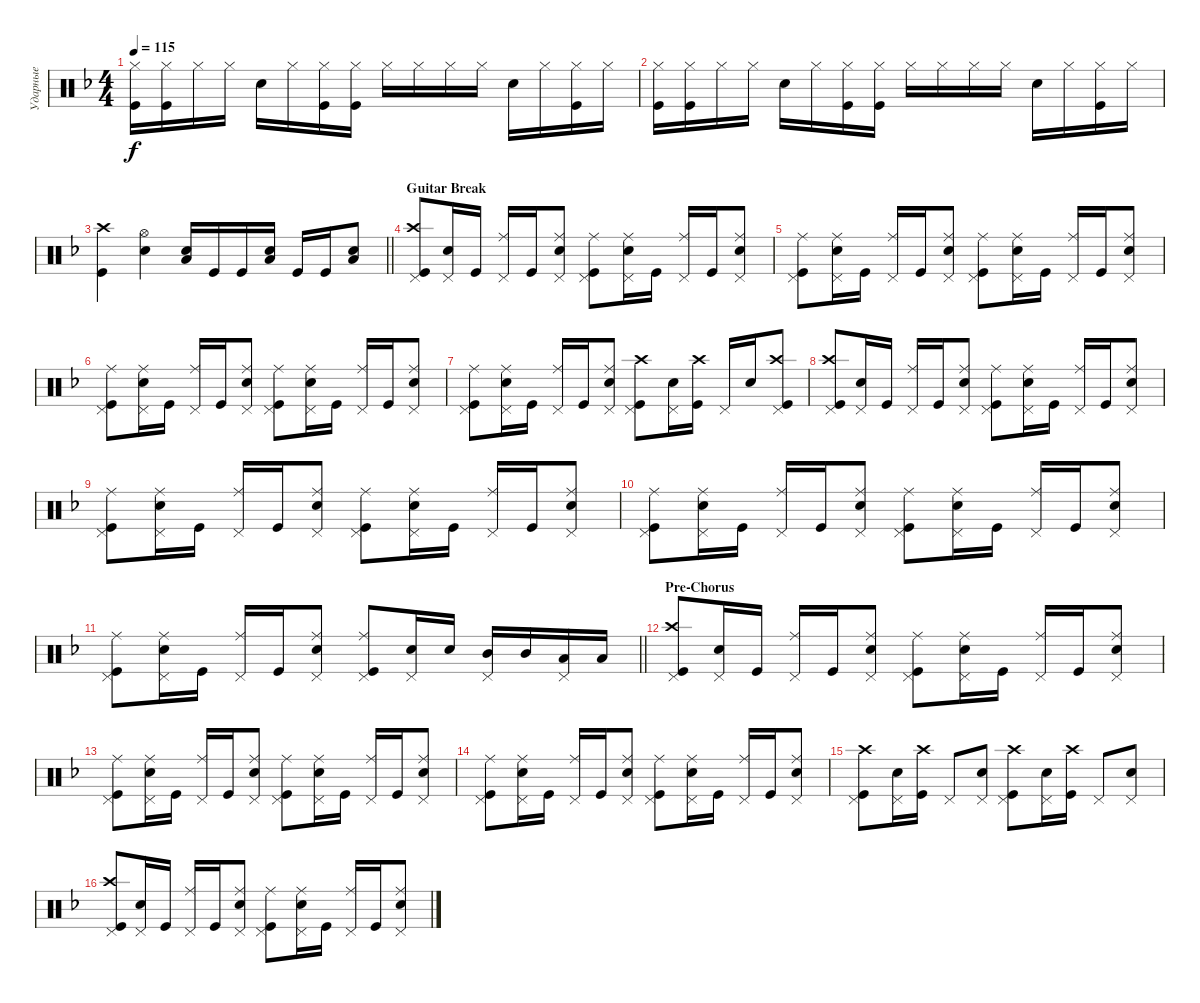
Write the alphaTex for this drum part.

\track ("Ударные" "Ударные") {instrument percussion}
\staff {score}
\articulation defaults
\ts (4 4)
\tempo 115
\clef neutral
\ks dminor
("Kick (hit)" "Hi-Hat (closed)").16{dy f} ("Kick (hit)" "Hi-Hat (closed)").16 "Hi-Hat (closed)".16 "Hi-Hat (closed)".16 "Snare (hit) 2".16 "Hi-Hat (closed)".16 ("Hi-Hat (closed)" "Kick (hit)").16 ("Hi-Hat (closed)" "Kick (hit)").16 "Hi-Hat (closed)".16 "Hi-Hat (closed)".16 "Hi-Hat (closed)".16 "Hi-Hat (closed)".16 "Snare (hit) 2".16 "Hi-Hat (closed)".16 ("Hi-Hat (closed)" "Kick (hit)").16 "Hi-Hat (closed)".16 |
("Kick (hit)" "Hi-Hat (closed)").16 ("Kick (hit)" "Hi-Hat (closed)").16 "Hi-Hat (closed)".16 "Hi-Hat (closed)".16 "Snare (hit) 2".16 "Hi-Hat (closed)".16 ("Hi-Hat (closed)" "Kick (hit)").16 ("Hi-Hat (closed)" "Kick (hit)").16 "Hi-Hat (closed)".16 "Hi-Hat (closed)".16 "Hi-Hat (closed)".16 "Hi-Hat (closed)".16 "Snare (hit) 2".16 "Hi-Hat (closed)".16 ("Hi-Hat (closed)" "Kick (hit)").16 "Hi-Hat (closed)".16 |
\barLineRight lightlight
("Kick (hit)" "Crash high (hit)").4 ("Snare (hit) 2" "Hi-Hat (open)").4 ("Snare (hit) 2" "Low Tom (hit)").16{bd 240} "Kick (hit)".16 "Kick (hit)".16 ("Snare (hit) 2" "Low Tom (hit)").16{bd 240} "Kick (hit)".16 "Kick (hit)".16 ("Low Tom (hit)" "Snare (hit) 2").8{bd 240} |
\section ("" "Guitar Break")
("Kick (hit)" "Pedal Hi-Hat (hit)" "Crash high (hit)").8 ("Snare (hit) 2" "Pedal Hi-Hat (hit)").16 "Kick (hit)".16 ("Ride (middle)" "Pedal Hi-Hat (hit)").16 "Kick (hit)".16 ("Snare (hit) 2" "Ride (middle)" "Pedal Hi-Hat (hit)").8 ("Kick (hit)" "Pedal Hi-Hat (hit)" "Ride (middle)").8 ("Snare (hit) 2" "Ride (middle)" "Pedal Hi-Hat (hit)").16 "Kick (hit)".16 ("Ride (middle)" "Pedal Hi-Hat (hit)").16 "Kick (hit)".16 ("Snare (hit) 2" "Ride (middle)" "Pedal Hi-Hat (hit)").8 |
("Kick (hit)" "Pedal Hi-Hat (hit)" "Ride (middle)").8 ("Snare (hit) 2" "Ride (middle)" "Pedal Hi-Hat (hit)").16 "Kick (hit)".16 ("Ride (middle)" "Pedal Hi-Hat (hit)").16 "Kick (hit)".16 ("Snare (hit) 2" "Ride (middle)" "Pedal Hi-Hat (hit)").8 ("Kick (hit)" "Pedal Hi-Hat (hit)" "Ride (middle)").8 ("Snare (hit) 2" "Ride (middle)" "Pedal Hi-Hat (hit)").16 "Kick (hit)".16 ("Ride (middle)" "Pedal Hi-Hat (hit)").16 "Kick (hit)".16 ("Snare (hit) 2" "Ride (middle)" "Pedal Hi-Hat (hit)").8 |
("Kick (hit)" "Pedal Hi-Hat (hit)" "Ride (middle)").8 ("Snare (hit) 2" "Ride (middle)" "Pedal Hi-Hat (hit)").16 "Kick (hit)".16 ("Ride (middle)" "Pedal Hi-Hat (hit)").16 "Kick (hit)".16 ("Snare (hit) 2" "Ride (middle)" "Pedal Hi-Hat (hit)").8 ("Kick (hit)" "Pedal Hi-Hat (hit)" "Ride (middle)").8 ("Snare (hit) 2" "Ride (middle)" "Pedal Hi-Hat (hit)").16 "Kick (hit)".16 ("Ride (middle)" "Pedal Hi-Hat (hit)").16 "Kick (hit)".16 ("Snare (hit) 2" "Ride (middle)" "Pedal Hi-Hat (hit)").8 |
("Kick (hit)" "Pedal Hi-Hat (hit)" "Ride (middle)").8 ("Snare (hit) 2" "Ride (middle)" "Pedal Hi-Hat (hit)").16 "Kick (hit)".16 ("Ride (middle)" "Pedal Hi-Hat (hit)").16 "Kick (hit)".16 ("Snare (hit) 2" "Ride (middle)" "Pedal Hi-Hat (hit)").8 ("Kick (hit)" "Pedal Hi-Hat (hit)" "Crash high (hit)").8 ("Snare (hit) 2" "Pedal Hi-Hat (hit)").16 ("Kick (hit)" "Crash high (hit)").16 "Pedal Hi-Hat (hit)".16 "Snare (hit) 2".16 ("Crash high (hit)" "Pedal Hi-Hat (hit)" "Kick (hit)").8 |
("Kick (hit)" "Pedal Hi-Hat (hit)" "Crash high (hit)").8 ("Snare (hit) 2" "Pedal Hi-Hat (hit)").16 "Kick (hit)".16 ("Ride (middle)" "Pedal Hi-Hat (hit)").16 "Kick (hit)".16 ("Snare (hit) 2" "Ride (middle)" "Pedal Hi-Hat (hit)").8 ("Kick (hit)" "Pedal Hi-Hat (hit)" "Ride (middle)").8 ("Snare (hit) 2" "Ride (middle)" "Pedal Hi-Hat (hit)").16 "Kick (hit)".16 ("Ride (middle)" "Pedal Hi-Hat (hit)").16 "Kick (hit)".16 ("Snare (hit) 2" "Ride (middle)" "Pedal Hi-Hat (hit)").8 |
("Kick (hit)" "Pedal Hi-Hat (hit)" "Ride (middle)").8 ("Snare (hit) 2" "Ride (middle)" "Pedal Hi-Hat (hit)").16 "Kick (hit)".16 ("Ride (middle)" "Pedal Hi-Hat (hit)").16 "Kick (hit)".16 ("Snare (hit) 2" "Ride (middle)" "Pedal Hi-Hat (hit)").8 ("Kick (hit)" "Pedal Hi-Hat (hit)" "Ride (middle)").8 ("Snare (hit) 2" "Ride (middle)" "Pedal Hi-Hat (hit)").16 "Kick (hit)".16 ("Ride (middle)" "Pedal Hi-Hat (hit)").16 "Kick (hit)".16 ("Snare (hit) 2" "Ride (middle)" "Pedal Hi-Hat (hit)").8 |
("Kick (hit)" "Pedal Hi-Hat (hit)" "Ride (middle)").8 ("Snare (hit) 2" "Ride (middle)" "Pedal Hi-Hat (hit)").16 "Kick (hit)".16 ("Ride (middle)" "Pedal Hi-Hat (hit)").16 "Kick (hit)".16 ("Snare (hit) 2" "Ride (middle)" "Pedal Hi-Hat (hit)").8 ("Kick (hit)" "Pedal Hi-Hat (hit)" "Ride (middle)").8 ("Snare (hit) 2" "Ride (middle)" "Pedal Hi-Hat (hit)").16 "Kick (hit)".16 ("Ride (middle)" "Pedal Hi-Hat (hit)").16 "Kick (hit)".16 ("Snare (hit) 2" "Ride (middle)" "Pedal Hi-Hat (hit)").8 |
\barLineRight lightlight
("Kick (hit)" "Pedal Hi-Hat (hit)" "Ride (middle)").8 ("Snare (hit) 2" "Ride (middle)" "Pedal Hi-Hat (hit)").16 "Kick (hit)".16 ("Ride (middle)" "Pedal Hi-Hat (hit)").16 "Kick (hit)".16 ("Snare (hit) 2" "Ride (middle)" "Pedal Hi-Hat (hit)").8 ("Kick (hit)" "Pedal Hi-Hat (hit)" "Ride (middle)").8 ("Snare (hit) 2" "Pedal Hi-Hat (hit)").16 "Snare (hit) 2".16 ("Mid Tom (hit)" "Pedal Hi-Hat (hit)").16 "Mid Tom (hit)".16 ("Low Tom (hit)" "Pedal Hi-Hat (hit)").16 "Low Tom (hit)".16 |
\section ("" "Pre-Chorus")
("Kick (hit)" "Pedal Hi-Hat (hit)" "Crash high (hit)").8 ("Snare (hit) 2" "Pedal Hi-Hat (hit)").16 "Kick (hit)".16 ("Ride (middle)" "Pedal Hi-Hat (hit)").16 "Kick (hit)".16 ("Snare (hit) 2" "Ride (middle)" "Pedal Hi-Hat (hit)").8 ("Kick (hit)" "Pedal Hi-Hat (hit)" "Ride (middle)").8 ("Snare (hit) 2" "Ride (middle)" "Pedal Hi-Hat (hit)").16 "Kick (hit)".16 ("Ride (middle)" "Pedal Hi-Hat (hit)").16 "Kick (hit)".16 ("Snare (hit) 2" "Ride (middle)" "Pedal Hi-Hat (hit)").8 |
("Kick (hit)" "Pedal Hi-Hat (hit)" "Ride (middle)").8 ("Snare (hit) 2" "Ride (middle)" "Pedal Hi-Hat (hit)").16 "Kick (hit)".16 ("Ride (middle)" "Pedal Hi-Hat (hit)").16 "Kick (hit)".16 ("Snare (hit) 2" "Ride (middle)" "Pedal Hi-Hat (hit)").8 ("Kick (hit)" "Pedal Hi-Hat (hit)" "Ride (middle)").8 ("Snare (hit) 2" "Ride (middle)" "Pedal Hi-Hat (hit)").16 "Kick (hit)".16 ("Ride (middle)" "Pedal Hi-Hat (hit)").16 "Kick (hit)".16 ("Snare (hit) 2" "Ride (middle)" "Pedal Hi-Hat (hit)").8 |
("Kick (hit)" "Pedal Hi-Hat (hit)" "Ride (middle)").8 ("Snare (hit) 2" "Ride (middle)" "Pedal Hi-Hat (hit)").16 "Kick (hit)".16 ("Ride (middle)" "Pedal Hi-Hat (hit)").16 "Kick (hit)".16 ("Snare (hit) 2" "Ride (middle)" "Pedal Hi-Hat (hit)").8 ("Kick (hit)" "Pedal Hi-Hat (hit)" "Ride (middle)").8 ("Snare (hit) 2" "Ride (middle)" "Pedal Hi-Hat (hit)").16 "Kick (hit)".16 ("Ride (middle)" "Pedal Hi-Hat (hit)").16 "Kick (hit)".16 ("Snare (hit) 2" "Ride (middle)" "Pedal Hi-Hat (hit)").8 |
("Kick (hit)" "Pedal Hi-Hat (hit)" "Crash high (hit)").8 ("Snare (hit) 2" "Pedal Hi-Hat (hit)").16 ("Kick (hit)" "Crash high (hit)").16 "Pedal Hi-Hat (hit)".8 ("Snare (hit) 2" "Pedal Hi-Hat (hit)").8 ("Kick (hit)" "Pedal Hi-Hat (hit)" "Crash high (hit)").8 ("Snare (hit) 2" "Pedal Hi-Hat (hit)").16 ("Kick (hit)" "Crash high (hit)").16 "Pedal Hi-Hat (hit)".8 ("Snare (hit) 2" "Pedal Hi-Hat (hit)").8 |
("Kick (hit)" "Pedal Hi-Hat (hit)" "Crash high (hit)").8 ("Snare (hit) 2" "Pedal Hi-Hat (hit)").16 "Kick (hit)".16 ("Ride (middle)" "Pedal Hi-Hat (hit)").16 "Kick (hit)".16 ("Snare (hit) 2" "Ride (middle)" "Pedal Hi-Hat (hit)").8 ("Kick (hit)" "Pedal Hi-Hat (hit)" "Ride (middle)").8 ("Snare (hit) 2" "Ride (middle)" "Pedal Hi-Hat (hit)").16 "Kick (hit)".16 ("Ride (middle)" "Pedal Hi-Hat (hit)").16 "Kick (hit)".16 ("Snare (hit) 2" "Ride (middle)" "Pedal Hi-Hat (hit)").8
